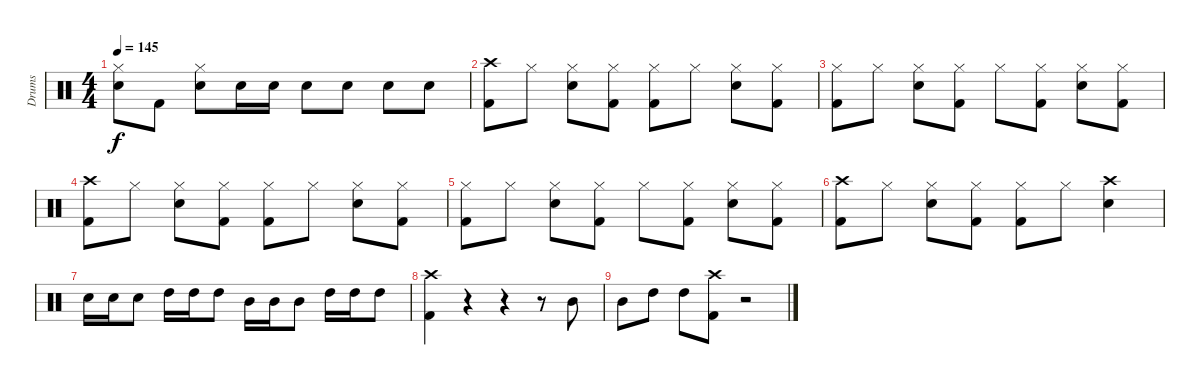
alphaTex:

\track ("Drums" "Drums") {instrument percussion}
\staff {score}
\articulation defaults
\ts (4 4)
\tempo 145
\clef neutral
\ks c
("Hi-Hat (closed)" "Electric Snare (hit)").8{dy f} "Kick (hit) 2".8 ("Hi-Hat (closed)" "Electric Snare (hit)").8 "Electric Snare (hit)".16 "Electric Snare (hit)".16 "Electric Snare (hit)".8 "Electric Snare (hit)".8 "Electric Snare (hit)".8 "Electric Snare (hit)".8 |
("Crash high (hit)" "Kick (hit) 2").8 "Hi-Hat (closed)".8 ("Hi-Hat (closed)" "Electric Snare (hit)").8 ("Hi-Hat (closed)" "Kick (hit) 2").8 ("Hi-Hat (closed)" "Kick (hit) 2").8 "Hi-Hat (closed)".8 ("Hi-Hat (closed)" "Electric Snare (hit)").8 ("Hi-Hat (closed)" "Kick (hit) 2").8 |
("Hi-Hat (closed)" "Kick (hit) 2").8 "Hi-Hat (closed)".8 ("Hi-Hat (closed)" "Electric Snare (hit)").8 ("Hi-Hat (closed)" "Kick (hit) 2").8 "Hi-Hat (closed)".8 ("Hi-Hat (closed)" "Kick (hit) 2").8 ("Hi-Hat (closed)" "Electric Snare (hit)").8 ("Hi-Hat (closed)" "Kick (hit) 2").8 |
("Crash high (hit)" "Kick (hit) 2").8 "Hi-Hat (closed)".8 ("Hi-Hat (closed)" "Electric Snare (hit)").8 ("Hi-Hat (closed)" "Kick (hit) 2").8 ("Hi-Hat (closed)" "Kick (hit) 2").8 "Hi-Hat (closed)".8 ("Hi-Hat (closed)" "Electric Snare (hit)").8 ("Hi-Hat (closed)" "Kick (hit) 2").8 |
("Hi-Hat (closed)" "Kick (hit) 2").8 "Hi-Hat (closed)".8 ("Hi-Hat (closed)" "Electric Snare (hit)").8 ("Hi-Hat (closed)" "Kick (hit) 2").8 "Hi-Hat (closed)".8 ("Hi-Hat (closed)" "Kick (hit) 2").8 ("Hi-Hat (closed)" "Electric Snare (hit)").8 ("Hi-Hat (closed)" "Kick (hit) 2").8 |
("Crash high (hit)" "Kick (hit) 2").8 "Hi-Hat (closed)".8 ("Hi-Hat (closed)" "Electric Snare (hit)").8 ("Hi-Hat (closed)" "Kick (hit) 2").8 ("Hi-Hat (closed)" "Kick (hit) 2").8 "Hi-Hat (closed)".8 ("Crash high (hit)" "Electric Snare (hit)").4 |
"Electric Snare (hit)".16 "Electric Snare (hit)".16 "Electric Snare (hit)".8 "High Tom (hit)".16 "High Tom (hit)".16 "High Tom (hit)".8 "Mid Tom (hit)".16 "Mid Tom (hit)".16 "Mid Tom (hit)".8 "High Tom (hit)".16 "High Tom (hit)".16 "High Tom (hit)".8 |
("Crash high (hit)" "Kick (hit) 2").4 r.4 r.4 r.8 "Mid Tom (hit)".8 |
"Mid Tom (hit)".8 "High Tom (hit)".8 "High Tom (hit)".8 ("Crash high (hit)" "Kick (hit) 2").8 r.2
